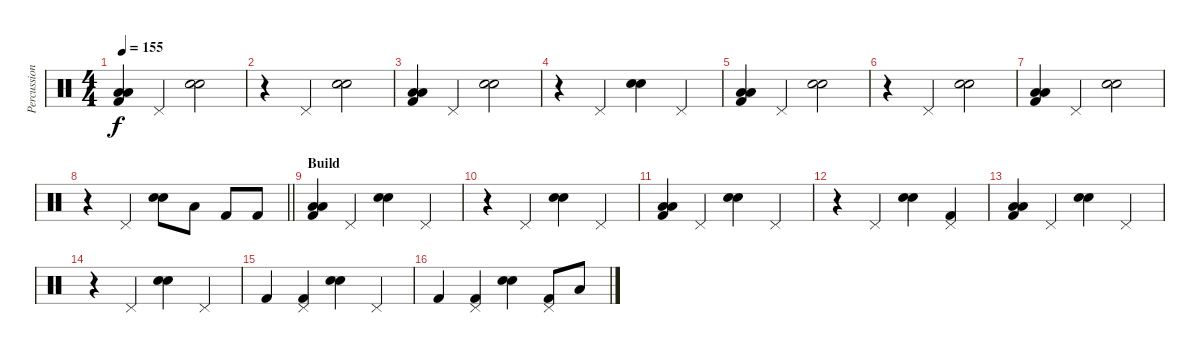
\track ("Percussion" "Percussion") {instrument percussion}
\staff {score}
\articulation defaults
\ts (4 4)
\tempo 155
\clef neutral
\ks c
("Low Floor Tom (hit)" "Low Floor Tom (hit)" "Kick (hit) 2").4{dy f} "Pedal Hi-Hat (hit)".4 ("Electric Snare (hit)" "Electric Snare (hit)").2{bu 240} |
r.4 "Pedal Hi-Hat (hit)".4 ("Electric Snare (hit)" "Electric Snare (hit)").2{bu 240} |
("Low Floor Tom (hit)" "Low Floor Tom (hit)" "Kick (hit) 2").4 "Pedal Hi-Hat (hit)".4 ("Electric Snare (hit)" "Electric Snare (hit)").2{bu 240} |
r.4 "Pedal Hi-Hat (hit)".4 ("Electric Snare (hit)" "Electric Snare (hit)").4{bu 240} "Pedal Hi-Hat (hit)".4 |
("Low Floor Tom (hit)" "Low Floor Tom (hit)" "Kick (hit) 2").4 "Pedal Hi-Hat (hit)".4 ("Electric Snare (hit)" "Electric Snare (hit)").2{bu 240} |
r.4 "Pedal Hi-Hat (hit)".4 ("Electric Snare (hit)" "Electric Snare (hit)").2{bu 240} |
("Low Floor Tom (hit)" "Low Floor Tom (hit)" "Kick (hit) 2").4 "Pedal Hi-Hat (hit)".4 ("Electric Snare (hit)" "Electric Snare (hit)").2{bu 240} |
\barLineRight lightlight
r.4 "Pedal Hi-Hat (hit)".4 ("Electric Snare (hit)" "Electric Snare (hit)").8{bu 240} "Low Tom (hit)".8 "Kick (hit) 2".8 "Kick (hit) 2".8 |
\section ("" "Build")
("Low Floor Tom (hit)" "Low Floor Tom (hit)" "Kick (hit) 2").4 "Pedal Hi-Hat (hit)".4 ("Electric Snare (hit)" "Electric Snare (hit)").4{bu 240} "Pedal Hi-Hat (hit)".4 |
r.4 "Pedal Hi-Hat (hit)".4 ("Electric Snare (hit)" "Electric Snare (hit)").4{bu 240} "Pedal Hi-Hat (hit)".4 |
("Low Floor Tom (hit)" "Low Floor Tom (hit)" "Kick (hit) 2").4 "Pedal Hi-Hat (hit)".4 ("Electric Snare (hit)" "Electric Snare (hit)").4{bu 240} "Pedal Hi-Hat (hit)".4 |
r.4 "Pedal Hi-Hat (hit)".4 ("Electric Snare (hit)" "Electric Snare (hit)").4{bu 240} ("Pedal Hi-Hat (hit)" "Kick (hit) 2").4 |
("Low Floor Tom (hit)" "Low Floor Tom (hit)" "Kick (hit) 2").4 "Pedal Hi-Hat (hit)".4 ("Electric Snare (hit)" "Electric Snare (hit)").4{bu 240} "Pedal Hi-Hat (hit)".4 |
r.4 "Pedal Hi-Hat (hit)".4 ("Electric Snare (hit)" "Electric Snare (hit)").4{bu 240} "Pedal Hi-Hat (hit)".4 |
"Kick (hit) 2".4 ("Pedal Hi-Hat (hit)" "Kick (hit) 2").4 ("Electric Snare (hit)" "Electric Snare (hit)").4{bu 240} "Pedal Hi-Hat (hit)".4 |
"Kick (hit) 2".4 ("Pedal Hi-Hat (hit)" "Kick (hit) 2").4 ("Electric Snare (hit)" "Electric Snare (hit)").4{bu 240} ("Pedal Hi-Hat (hit)" "Kick (hit) 2").8 "Low Tom (hit)".8
